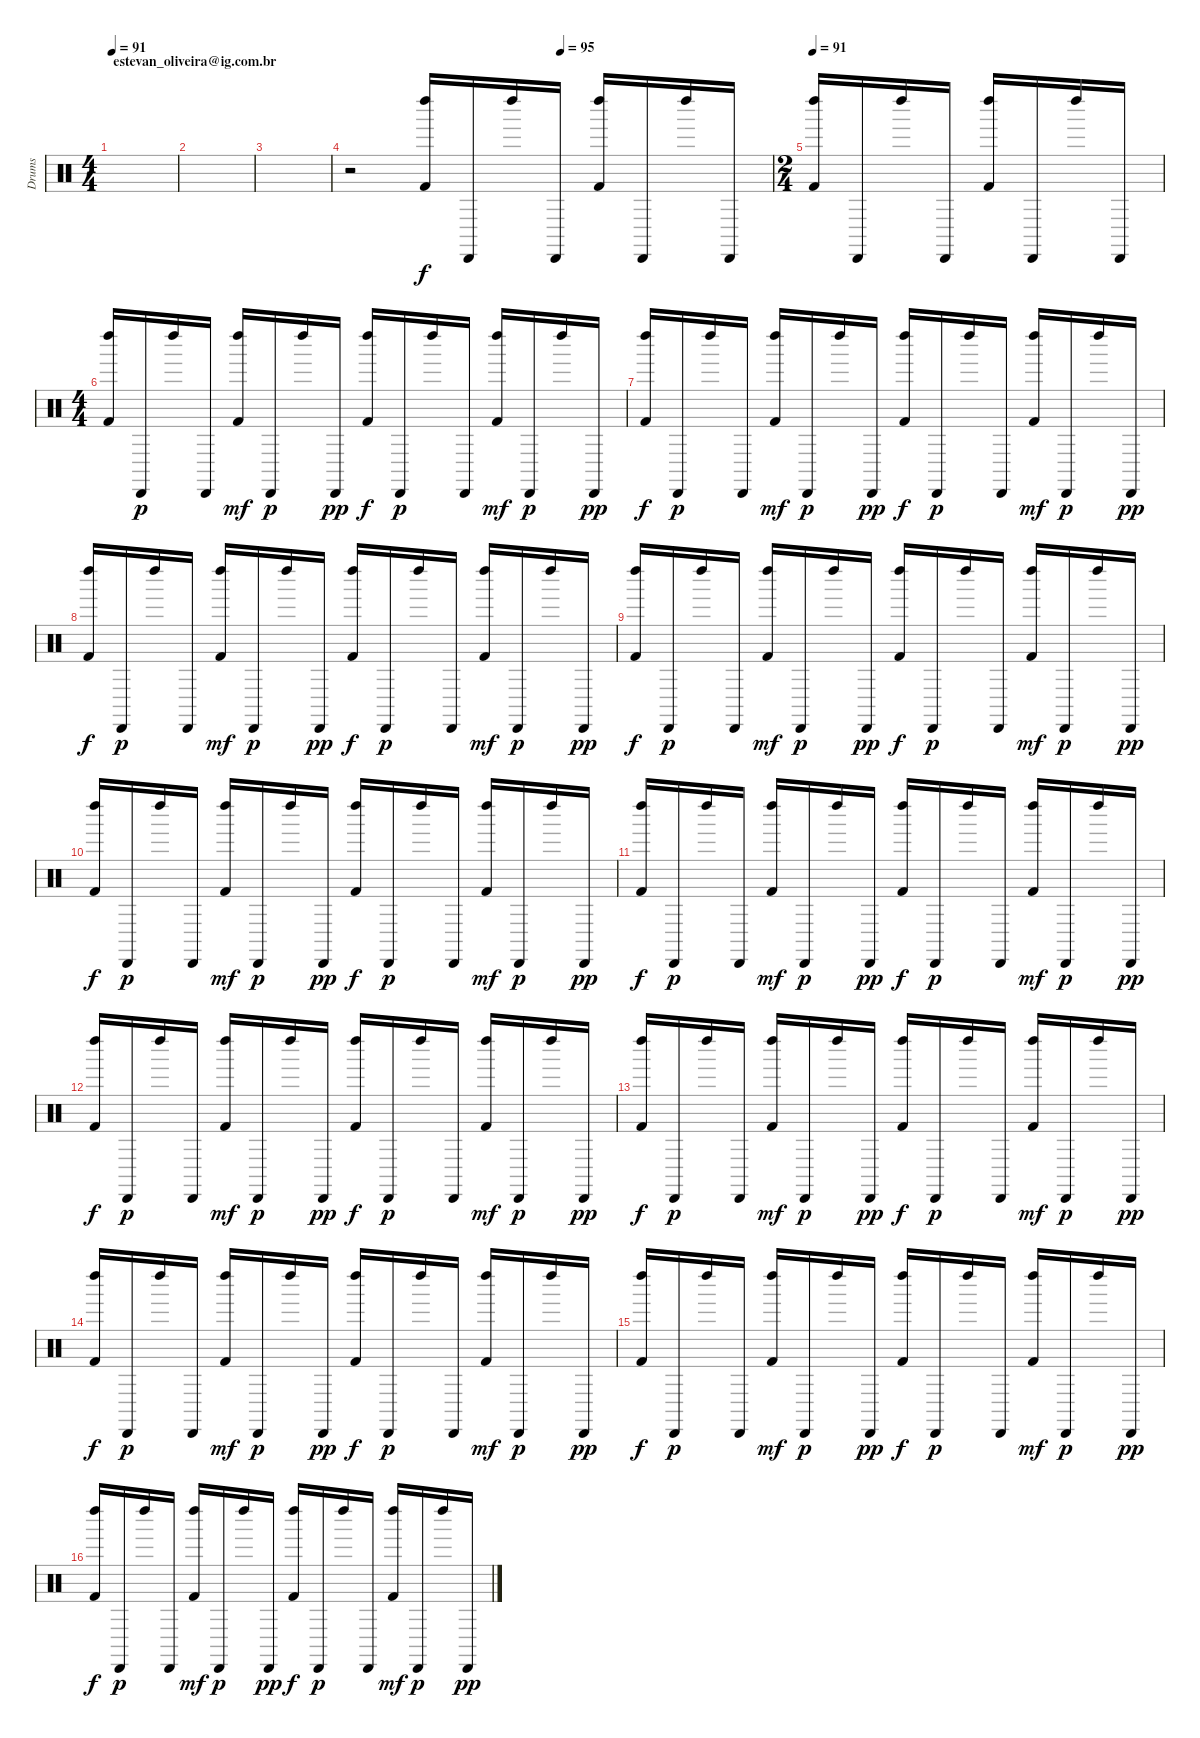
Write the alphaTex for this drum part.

\track ("Drums" "Drums") {instrument percussion}
\staff {score}
\articulation defaults
\ts (4 4)
\section ("" "estevan_oliveira@ig.com.br")
\tempo 91
\clef neutral
\ks c
|
|
|
\tempo (95 0.5)
r.2 ("Kick (hit) 2" "Left Maraca (hit)").16 "Cabasa (hit)".16 "Left Maraca (hit)".16 "Cabasa (hit)".16 ("Kick (hit) 2" "Left Maraca (hit)").16 "Cabasa (hit)".16 "Left Maraca (hit)".16 "Cabasa (hit)".16 |
\ts (2 4)
\tempo 91
("Kick (hit) 2" "Left Maraca (hit)").16 "Cabasa (hit)".16 "Left Maraca (hit)".16 "Cabasa (hit)".16 ("Kick (hit) 2" "Left Maraca (hit)").16 "Cabasa (hit)".16 "Left Maraca (hit)".16 "Cabasa (hit)".16 |
\ts (4 4)
("Kick (hit) 2" "Left Maraca (hit)").16{dy f} "Cabasa (hit)".16{dy p} "Left Maraca (hit)".16 "Cabasa (hit)".16 ("Kick (hit) 2" "Left Maraca (hit)").16{dy mf} "Cabasa (hit)".16{dy p} "Left Maraca (hit)".16 "Cabasa (hit)".16{dy pp} ("Kick (hit) 2" "Left Maraca (hit)").16{dy f} "Cabasa (hit)".16{dy p} "Left Maraca (hit)".16 "Cabasa (hit)".16 ("Kick (hit) 2" "Left Maraca (hit)").16{dy mf} "Cabasa (hit)".16{dy p} "Left Maraca (hit)".16 "Cabasa (hit)".16{dy pp} |
("Kick (hit) 2" "Left Maraca (hit)").16{dy f} "Cabasa (hit)".16{dy p} "Left Maraca (hit)".16 "Cabasa (hit)".16 ("Kick (hit) 2" "Left Maraca (hit)").16{dy mf} "Cabasa (hit)".16{dy p} "Left Maraca (hit)".16 "Cabasa (hit)".16{dy pp} ("Kick (hit) 2" "Left Maraca (hit)").16{dy f} "Cabasa (hit)".16{dy p} "Left Maraca (hit)".16 "Cabasa (hit)".16 ("Kick (hit) 2" "Left Maraca (hit)").16{dy mf} "Cabasa (hit)".16{dy p} "Left Maraca (hit)".16 "Cabasa (hit)".16{dy pp} |
("Kick (hit) 2" "Left Maraca (hit)").16{dy f} "Cabasa (hit)".16{dy p} "Left Maraca (hit)".16 "Cabasa (hit)".16 ("Kick (hit) 2" "Left Maraca (hit)").16{dy mf} "Cabasa (hit)".16{dy p} "Left Maraca (hit)".16 "Cabasa (hit)".16{dy pp} ("Kick (hit) 2" "Left Maraca (hit)").16{dy f} "Cabasa (hit)".16{dy p} "Left Maraca (hit)".16 "Cabasa (hit)".16 ("Kick (hit) 2" "Left Maraca (hit)").16{dy mf} "Cabasa (hit)".16{dy p} "Left Maraca (hit)".16 "Cabasa (hit)".16{dy pp} |
("Kick (hit) 2" "Left Maraca (hit)").16{dy f} "Cabasa (hit)".16{dy p} "Left Maraca (hit)".16 "Cabasa (hit)".16 ("Kick (hit) 2" "Left Maraca (hit)").16{dy mf} "Cabasa (hit)".16{dy p} "Left Maraca (hit)".16 "Cabasa (hit)".16{dy pp} ("Kick (hit) 2" "Left Maraca (hit)").16{dy f} "Cabasa (hit)".16{dy p} "Left Maraca (hit)".16 "Cabasa (hit)".16 ("Kick (hit) 2" "Left Maraca (hit)").16{dy mf} "Cabasa (hit)".16{dy p} "Left Maraca (hit)".16 "Cabasa (hit)".16{dy pp} |
("Kick (hit) 2" "Left Maraca (hit)").16{dy f} "Cabasa (hit)".16{dy p} "Left Maraca (hit)".16 "Cabasa (hit)".16 ("Kick (hit) 2" "Left Maraca (hit)").16{dy mf} "Cabasa (hit)".16{dy p} "Left Maraca (hit)".16 "Cabasa (hit)".16{dy pp} ("Kick (hit) 2" "Left Maraca (hit)").16{dy f} "Cabasa (hit)".16{dy p} "Left Maraca (hit)".16 "Cabasa (hit)".16 ("Kick (hit) 2" "Left Maraca (hit)").16{dy mf} "Cabasa (hit)".16{dy p} "Left Maraca (hit)".16 "Cabasa (hit)".16{dy pp} |
("Kick (hit) 2" "Left Maraca (hit)").16{dy f} "Cabasa (hit)".16{dy p} "Left Maraca (hit)".16 "Cabasa (hit)".16 ("Kick (hit) 2" "Left Maraca (hit)").16{dy mf} "Cabasa (hit)".16{dy p} "Left Maraca (hit)".16 "Cabasa (hit)".16{dy pp} ("Kick (hit) 2" "Left Maraca (hit)").16{dy f} "Cabasa (hit)".16{dy p} "Left Maraca (hit)".16 "Cabasa (hit)".16 ("Kick (hit) 2" "Left Maraca (hit)").16{dy mf} "Cabasa (hit)".16{dy p} "Left Maraca (hit)".16 "Cabasa (hit)".16{dy pp} |
("Kick (hit) 2" "Left Maraca (hit)").16{dy f} "Cabasa (hit)".16{dy p} "Left Maraca (hit)".16 "Cabasa (hit)".16 ("Kick (hit) 2" "Left Maraca (hit)").16{dy mf} "Cabasa (hit)".16{dy p} "Left Maraca (hit)".16 "Cabasa (hit)".16{dy pp} ("Kick (hit) 2" "Left Maraca (hit)").16{dy f} "Cabasa (hit)".16{dy p} "Left Maraca (hit)".16 "Cabasa (hit)".16 ("Kick (hit) 2" "Left Maraca (hit)").16{dy mf} "Cabasa (hit)".16{dy p} "Left Maraca (hit)".16 "Cabasa (hit)".16{dy pp} |
("Kick (hit) 2" "Left Maraca (hit)").16{dy f} "Cabasa (hit)".16{dy p} "Left Maraca (hit)".16 "Cabasa (hit)".16 ("Kick (hit) 2" "Left Maraca (hit)").16{dy mf} "Cabasa (hit)".16{dy p} "Left Maraca (hit)".16 "Cabasa (hit)".16{dy pp} ("Kick (hit) 2" "Left Maraca (hit)").16{dy f} "Cabasa (hit)".16{dy p} "Left Maraca (hit)".16 "Cabasa (hit)".16 ("Kick (hit) 2" "Left Maraca (hit)").16{dy mf} "Cabasa (hit)".16{dy p} "Left Maraca (hit)".16 "Cabasa (hit)".16{dy pp} |
("Kick (hit) 2" "Left Maraca (hit)").16{dy f} "Cabasa (hit)".16{dy p} "Left Maraca (hit)".16 "Cabasa (hit)".16 ("Kick (hit) 2" "Left Maraca (hit)").16{dy mf} "Cabasa (hit)".16{dy p} "Left Maraca (hit)".16 "Cabasa (hit)".16{dy pp} ("Kick (hit) 2" "Left Maraca (hit)").16{dy f} "Cabasa (hit)".16{dy p} "Left Maraca (hit)".16 "Cabasa (hit)".16 ("Kick (hit) 2" "Left Maraca (hit)").16{dy mf} "Cabasa (hit)".16{dy p} "Left Maraca (hit)".16 "Cabasa (hit)".16{dy pp} |
("Kick (hit) 2" "Left Maraca (hit)").16{dy f} "Cabasa (hit)".16{dy p} "Left Maraca (hit)".16 "Cabasa (hit)".16 ("Kick (hit) 2" "Left Maraca (hit)").16{dy mf} "Cabasa (hit)".16{dy p} "Left Maraca (hit)".16 "Cabasa (hit)".16{dy pp} ("Kick (hit) 2" "Left Maraca (hit)").16{dy f} "Cabasa (hit)".16{dy p} "Left Maraca (hit)".16 "Cabasa (hit)".16 ("Kick (hit) 2" "Left Maraca (hit)").16{dy mf} "Cabasa (hit)".16{dy p} "Left Maraca (hit)".16 "Cabasa (hit)".16{dy pp} |
("Kick (hit) 2" "Left Maraca (hit)").16{dy f} "Cabasa (hit)".16{dy p} "Left Maraca (hit)".16 "Cabasa (hit)".16 ("Kick (hit) 2" "Left Maraca (hit)").16{dy mf} "Cabasa (hit)".16{dy p} "Left Maraca (hit)".16 "Cabasa (hit)".16{dy pp} ("Kick (hit) 2" "Left Maraca (hit)").16{dy f} "Cabasa (hit)".16{dy p} "Left Maraca (hit)".16 "Cabasa (hit)".16 ("Kick (hit) 2" "Left Maraca (hit)").16{dy mf} "Cabasa (hit)".16{dy p} "Left Maraca (hit)".16 "Cabasa (hit)".16{dy pp}
